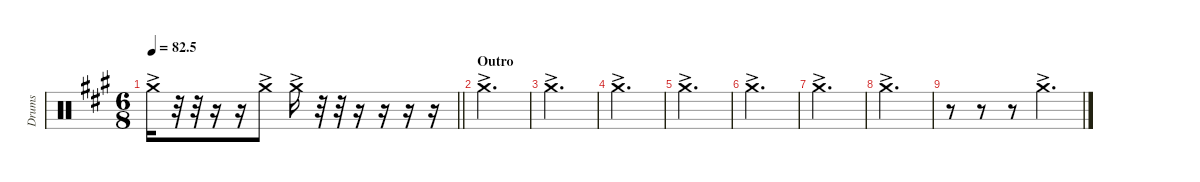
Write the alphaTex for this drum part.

\defaultSystemsLayout 4
\hideDynamics
\bracketExtendMode nobrackets
\otherSystemsTrackNameOrientation horizontal
\track ("Right crash" "Drums") {instrument percussion}
\staff {score}
\articulation defaults
\ts (6 8)
\tempo
82.5
\accidentals auto
\clef neutral
\ottava regular
\simile none
\scale
0.333333
\barLineRight lightlight
\ks a "Crash medium (hit)"{ac acc forcenatural}.16{dy f}
r.32 r.32 r.16 r.16 "Crash medium (hit)"{ac acc forcenatural}.8 "Crash medium (hit)"{ac acc forcenatural}.16 r.32 r.32 r.16 r.16 r.16 r.16 |
\section ("" "Outro")
\scale
0.333333 "Crash medium (hit)"{ac acc forcenatural}.2{d} |
\scale
0.333333 "Crash medium (hit)"{ac acc forcenatural}.2{d} |
\scale
0.333333 "Crash medium (hit)"{ac acc forcenatural}.2{d} |
\scale
0.333333 "Crash medium (hit)"{ac acc forcenatural}.2{d} |
\scale
0.333333 "Crash medium (hit)"{ac acc forcenatural}.2{d} |
\scale
0.333333 "Crash medium (hit)"{ac acc forcenatural}.2{d} |
\scale
0.333333 "Crash medium (hit)"{ac acc forcenatural}.2{d} |
\scale
0.333333 r.8 r.8 r.8 "Crash medium (hit)"{ac acc forcenatural}.4{d} |
\scale
0.333333 |
\scale
0.333333 |
\scale
0.333333
